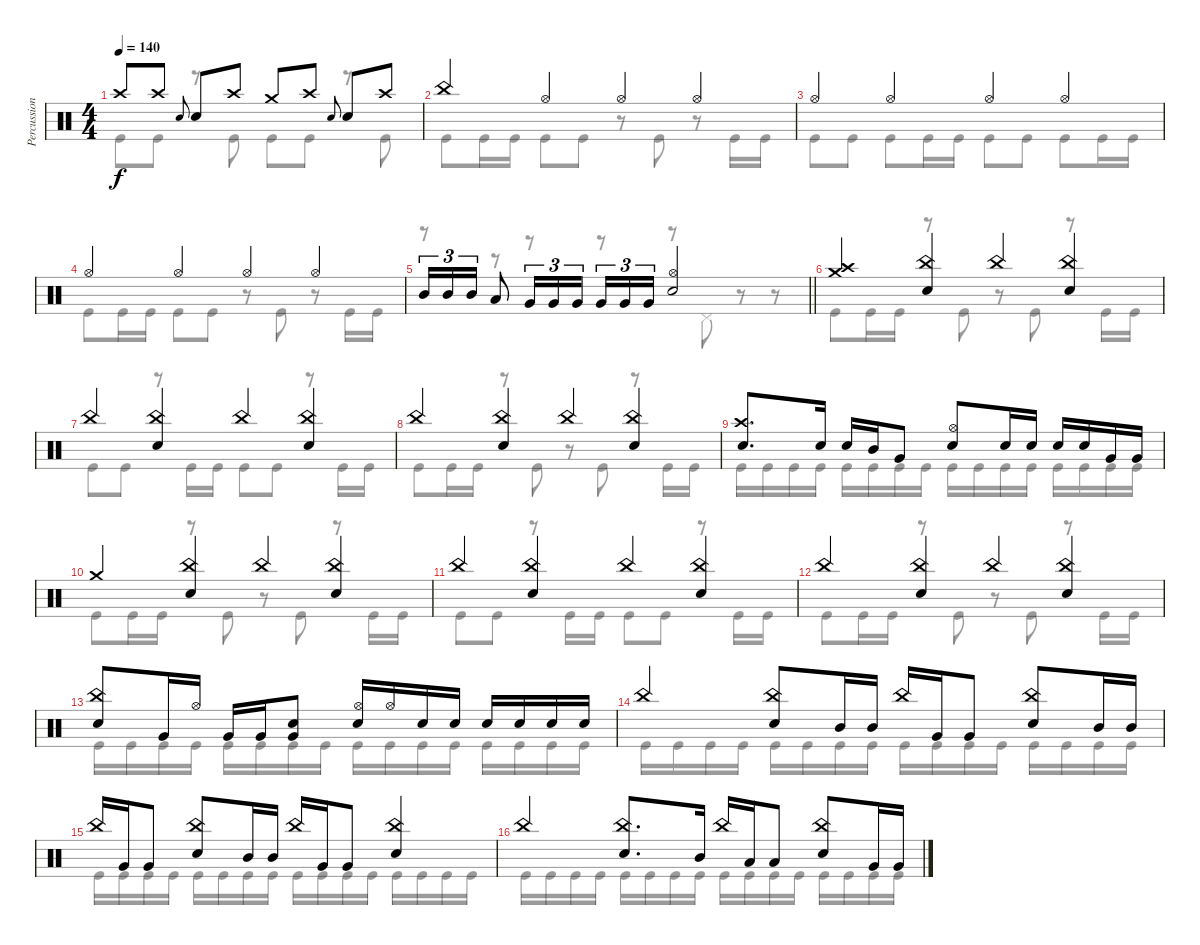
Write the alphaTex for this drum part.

\track ("Percussion" "Percussion") {instrument percussion}
\staff {score}
\articulation defaults
\voice
\ts (4 4)
\tempo 140
\clef neutral
\ks c "Crash high (hit)".8{dy f} "Crash high (hit)".8 "Electric Snare (hit)".8{gr onbeat} "Electric Snare (hit)".8 "Crash high (hit)".8 "Crash medium (hit)".8 "Crash high (hit)".8 "Electric Snare (hit)".8{gr onbeat} "Electric Snare (hit)".8 "Crash high (hit)".8
|
"China (hit)".4 "Hi-Hat (open)".4 "Hi-Hat (open)".4 "Hi-Hat (open)".4 |
"Hi-Hat (open)".4 "Hi-Hat (open)".4 "Hi-Hat (open)".4 "Hi-Hat (open)".4 |
"Hi-Hat (open)".4 "Hi-Hat (open)".4 "Hi-Hat (open)".4 "Hi-Hat (open)".4 |
\barLineRight lightlight "Mid Tom (hit)".16{tu (3 2)} "Mid Tom (hit)".16{tu (3 2)} "Mid Tom (hit)".16{tu (3 2)} "Low Tom (hit)".8 "Very Low Tom (hit)".16{tu (3 2)} "Very Low Tom (hit)".16{tu (3 2)} "Very Low Tom (hit)".16{tu (3 2) beam splitsecondary} "Very Low Tom (hit)".16{tu (3 2)} "Very Low Tom (hit)".16{tu (3 2)} "Very Low Tom (hit)".16{tu (3 2)}
("Hi-Hat (open)" "Electric Snare (hit)").2 |
\section ("" "")
("Crash medium (hit)" "Crash high (hit)").4 ("China (hit)" "Electric Snare (hit)").4 "China (hit)".4 ("China (hit)" "Electric Snare (hit)").4 |
"China (hit)".4 ("China (hit)" "Electric Snare (hit)").4 "China (hit)".4 ("China (hit)" "Electric Snare (hit)").4 |
"China (hit)".4 ("China (hit)" "Electric Snare (hit)").4 "China (hit)".4 ("China (hit)" "Electric Snare (hit)").4 |
("Crash high (hit)" "Electric Snare (hit)").8{d} "Electric Snare (hit)".16 "Electric Snare (hit)".16 "Mid Tom (hit)".16 "Very Low Tom (hit)".8 ("Hi-Hat (open)" "Electric Snare (hit)").8 "Electric Snare (hit)".16 "Electric Snare (hit)".16 "Electric Snare (hit)".16 "Electric Snare (hit)".16 "Very Low Tom (hit)".16 "Very Low Tom (hit)".16 |
"Crash medium (hit)".4 ("China (hit)" "Electric Snare (hit)").4 "China (hit)".4 ("China (hit)" "Electric Snare (hit)").4 |
"China (hit)".4 ("China (hit)" "Electric Snare (hit)").4 "China (hit)".4 ("China (hit)" "Electric Snare (hit)").4 |
"China (hit)".4 ("China (hit)" "Electric Snare (hit)").4 "China (hit)".4 ("China (hit)" "Electric Snare (hit)").4 |
("China (hit)" "Electric Snare (hit)").8 "Very Low Tom (hit)".16 "Hi-Hat (open)".16 "Very Low Tom (hit)".16 "Very Low Tom (hit)".16 ("Very Low Tom (hit)" "Electric Snare (hit)").8 ("Hi-Hat (open)" "Electric Snare (hit)").16 "Hi-Hat (open)".16 "Electric Snare (hit)".16 "Electric Snare (hit)".16 "Electric Snare (hit)".16 "Electric Snare (hit)".16 "Electric Snare (hit)".16 "Electric Snare (hit)".16 |
"China (hit)".4 ("China (hit)" "Electric Snare (hit)").8 "Mid Tom (hit)".16 "Mid Tom (hit)".16 "China (hit)".16 "Very Low Tom (hit)".16 "Very Low Tom (hit)".8 ("China (hit)" "Electric Snare (hit)").8 "Mid Tom (hit)".16 "Mid Tom (hit)".16 |
"China (hit)".16 "Very Low Tom (hit)".16 "Very Low Tom (hit)".8 ("China (hit)" "Electric Snare (hit)").8 "Mid Tom (hit)".16 "Mid Tom (hit)".16 "China (hit)".16 "Very Low Tom (hit)".16 "Very Low Tom (hit)".8 ("China (hit)" "Electric Snare (hit)").4 |
"China (hit)".4 ("China (hit)" "Electric Snare (hit)").8{d} "Mid Tom (hit)".16 "China (hit)".16 "Low Tom (hit)".16 "Low Tom (hit)".8 ("China (hit)" "Electric Snare (hit)").8 "Very Low Tom (hit)".16 "Very Low Tom (hit)".16
\voice
\clef neutral
\ottava regular
\simile none
\ks c "Kick (hit)".8{dy f} "Kick (hit)".8
r.8 "Kick (hit)".8 "Kick (hit)".8 "Kick (hit)".8 r.8 "Kick (hit)".8 |
"Kick (hit)".8 "Kick (hit)".16 "Kick (hit)".16 "Kick (hit)".8 "Kick (hit)".8 r.8 "Kick (hit)".8 r.8 "Kick (hit)".16 "Kick (hit)".16 |
"Kick (hit)".8 "Kick (hit)".8 "Kick (hit)".8 "Kick (hit)".16 "Kick (hit)".16 "Kick (hit)".8 "Kick (hit)".8 "Kick (hit)".8 "Kick (hit)".16 "Kick (hit)".16 |
"Kick (hit)".8 "Kick (hit)".16 "Kick (hit)".16 "Kick (hit)".8 "Kick (hit)".8 r.8 "Kick (hit)".8 r.8 "Kick (hit)".16 "Kick (hit)".16 |
\barLineRight lightlight
r.8 r.8 r.8 r.8 r.8 "Pedal Hi-Hat (hit)".8 r.8 r.8 |
"Kick (hit)".8 "Kick (hit)".16 "Kick (hit)".16 r.8 "Kick (hit)".8 r.8 "Kick (hit)".8 r.8 "Kick (hit)".16 "Kick (hit)".16 |
"Kick (hit)".8 "Kick (hit)".8 r.8 "Kick (hit)".16 "Kick (hit)".16 "Kick (hit)".8 "Kick (hit)".8 r.8 "Kick (hit)".16 "Kick (hit)".16 |
"Kick (hit)".8 "Kick (hit)".16 "Kick (hit)".16 r.8 "Kick (hit)".8 r.8 "Kick (hit)".8 r.8 "Kick (hit)".16 "Kick (hit)".16 |
"Kick (hit)".16 "Kick (hit)".16 "Kick (hit)".16 "Kick (hit)".16 "Kick (hit)".16 "Kick (hit)".16 "Kick (hit)".16 "Kick (hit)".16 "Kick (hit)".16 "Kick (hit)".16 "Kick (hit)".16 "Kick (hit)".16 "Kick (hit)".16 "Kick (hit)".16 "Kick (hit)".16 "Kick (hit)".16 |
"Kick (hit)".8 "Kick (hit)".16 "Kick (hit)".16 r.8 "Kick (hit)".8 r.8 "Kick (hit)".8 r.8 "Kick (hit)".16 "Kick (hit)".16 |
"Kick (hit)".8 "Kick (hit)".8 r.8 "Kick (hit)".16 "Kick (hit)".16 "Kick (hit)".8 "Kick (hit)".8 r.8 "Kick (hit)".16 "Kick (hit)".16 |
"Kick (hit)".8 "Kick (hit)".16 "Kick (hit)".16 r.8 "Kick (hit)".8 r.8 "Kick (hit)".8 r.8 "Kick (hit)".16 "Kick (hit)".16 |
"Kick (hit)".16 "Kick (hit)".16 "Kick (hit)".16 "Kick (hit)".16 "Kick (hit)".16 "Kick (hit)".16 "Kick (hit)".16 "Kick (hit)".16 "Kick (hit)".16 "Kick (hit)".16 "Kick (hit)".16 "Kick (hit)".16 "Kick (hit)".16 "Kick (hit)".16 "Kick (hit)".16 "Kick (hit)".16 |
"Kick (hit)".16 "Kick (hit)".16 "Kick (hit)".16 "Kick (hit)".16 "Kick (hit)".16 "Kick (hit)".16 "Kick (hit)".16 "Kick (hit)".16 "Kick (hit)".16 "Kick (hit)".16 "Kick (hit)".16 "Kick (hit)".16 "Kick (hit)".16 "Kick (hit)".16 "Kick (hit)".16 "Kick (hit)".16 |
"Kick (hit)".16 "Kick (hit)".16 "Kick (hit)".16 "Kick (hit)".16 "Kick (hit)".16 "Kick (hit)".16 "Kick (hit)".16 "Kick (hit)".16 "Kick (hit)".16 "Kick (hit)".16 "Kick (hit)".16 "Kick (hit)".16 "Kick (hit)".16 "Kick (hit)".16 "Kick (hit)".16 "Kick (hit)".16 |
"Kick (hit)".16 "Kick (hit)".16 "Kick (hit)".16 "Kick (hit)".16 "Kick (hit)".16 "Kick (hit)".16 "Kick (hit)".16 "Kick (hit)".16 "Kick (hit)".16 "Kick (hit)".16 "Kick (hit)".16 "Kick (hit)".16 "Kick (hit)".16 "Kick (hit)".16 "Kick (hit)".16 "Kick (hit)".16
